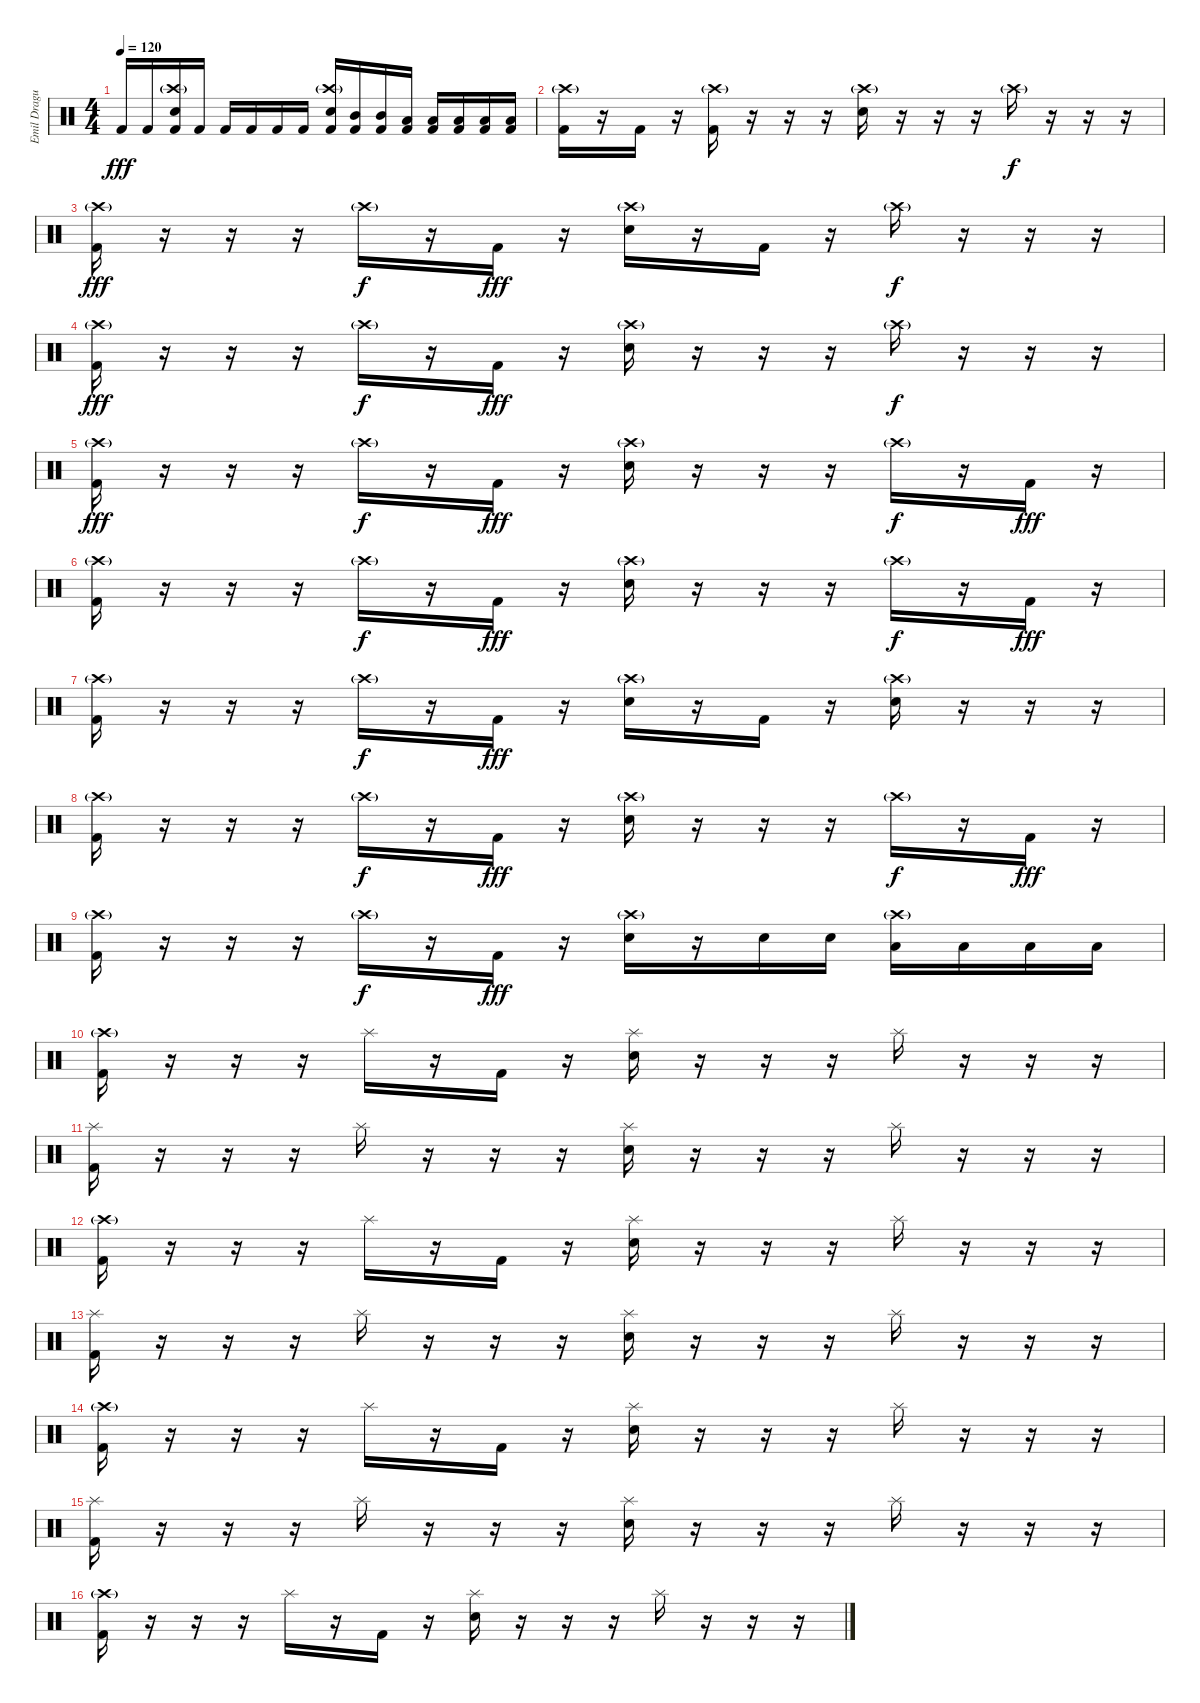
\track ("Emil Dragutinovic" "Emil Dragu") {instrument percussion}
\staff {score}
\articulation defaults
\ts (4 4)
\tempo 120
\clef neutral
\ks c "Kick (hit) 2".16{dy fff} "Kick (hit) 2".16
("Crash high (hit)"{g} "Electric Snare (hit)" "Kick (hit) 2").16 "Kick (hit) 2".16 "Kick (hit) 2".16 "Kick (hit) 2".16 "Kick (hit) 2".16 "Kick (hit) 2".16 ("Crash high (hit)"{g} "Electric Snare (hit)" "Kick (hit) 2").16 ("Mid Tom (hit)" "Kick (hit) 2").16 ("Mid Tom (hit)" "Kick (hit) 2").16 ("Low Tom (hit)" "Kick (hit) 2").16 ("Low Tom (hit)" "Kick (hit) 2").16 ("Low Floor Tom (hit)" "Kick (hit) 2").16 ("Low Floor Tom (hit)" "Kick (hit) 2").16 ("Low Floor Tom (hit)" "Kick (hit) 2").16 |
("Crash high (hit)"{g} "Kick (hit) 2").16 r.16 "Kick (hit) 2".16 r.16 ("Crash high (hit)"{g} "Kick (hit) 2").16 r.16 r.16 r.16 ("Crash high (hit)"{g} "Electric Snare (hit)").16 r.16 r.16 r.16 "Crash high (hit)"{g}.16{dy f} r.16 r.16 r.16 |
("Crash high (hit)"{g} "Kick (hit) 2").16{dy fff} r.16 r.16 r.16 "Crash high (hit)"{g}.16{dy f} r.16 "Kick (hit) 2".16{dy fff} r.16 ("Crash high (hit)"{g} "Electric Snare (hit)").16 r.16 "Kick (hit) 2".16 r.16 "Crash high (hit)"{g}.16{dy f} r.16 r.16 r.16 |
("Crash high (hit)"{g} "Kick (hit) 2").16{dy fff} r.16 r.16 r.16 "Crash high (hit)"{g}.16{dy f} r.16 "Kick (hit) 2".16{dy fff} r.16 ("Crash high (hit)"{g} "Electric Snare (hit)").16 r.16 r.16 r.16 "Crash high (hit)"{g}.16{dy f} r.16 r.16 r.16 |
("Crash high (hit)"{g} "Kick (hit) 2").16{dy fff} r.16 r.16 r.16 "Crash high (hit)"{g}.16{dy f} r.16 "Kick (hit) 2".16{dy fff} r.16 ("Crash high (hit)"{g} "Electric Snare (hit)").16 r.16 r.16 r.16 "Crash high (hit)"{g}.16{dy f} r.16 "Kick (hit) 2".16{dy fff} r.16 |
("Crash high (hit)"{g} "Kick (hit) 2").16 r.16 r.16 r.16 "Crash high (hit)"{g}.16{dy f} r.16 "Kick (hit) 2".16{dy fff} r.16 ("Crash high (hit)"{g} "Electric Snare (hit)").16 r.16 r.16 r.16 "Crash high (hit)"{g}.16{dy f} r.16 "Kick (hit) 2".16{dy fff} r.16 |
("Crash high (hit)"{g} "Kick (hit) 2").16 r.16 r.16 r.16 "Crash high (hit)"{g}.16{dy f} r.16 "Kick (hit) 2".16{dy fff} r.16 ("Crash high (hit)"{g} "Electric Snare (hit)").16 r.16 "Kick (hit) 2".16 r.16 ("Crash high (hit)"{g} "Electric Snare (hit)").16 r.16 r.16 r.16 |
("Crash high (hit)"{g} "Kick (hit) 2").16 r.16 r.16 r.16 "Crash high (hit)"{g}.16{dy f} r.16 "Kick (hit) 2".16{dy fff} r.16 ("Crash high (hit)"{g} "Electric Snare (hit)").16 r.16 r.16 r.16 "Crash high (hit)"{g}.16{dy f} r.16 "Kick (hit) 2".16{dy fff} r.16 |
("Crash high (hit)"{g} "Kick (hit) 2").16 r.16 r.16 r.16 "Crash high (hit)"{g}.16{dy f} r.16 "Kick (hit) 2".16{dy fff} r.16 ("Crash high (hit)"{g} "Electric Snare (hit)").16 r.16 "Electric Snare (hit)".16 "Electric Snare (hit)".16 ("Crash high (hit)"{g} "Low Tom (hit)").16 "Low Tom (hit)".16 "Low Floor Tom (hit)".16 "Low Floor Tom (hit)".16 |
("Crash high (hit)"{g} "Kick (hit) 2").16 r.16 r.16 r.16 "Splash (hit)".16 r.16 "Kick (hit) 2".16 r.16 ("Splash (hit)" "Electric Snare (hit)").16 r.16 r.16 r.16 "Splash (hit)".16 r.16 r.16 r.16 |
("Splash (hit)" "Kick (hit) 2").16 r.16 r.16 r.16 "Splash (hit)".16 r.16 r.16 r.16 ("Splash (hit)" "Electric Snare (hit)").16 r.16 r.16 r.16 "Splash (hit)".16 r.16 r.16 r.16 |
("Crash high (hit)"{g} "Kick (hit) 2").16 r.16 r.16 r.16 "Splash (hit)".16 r.16 "Kick (hit) 2".16 r.16 ("Splash (hit)" "Electric Snare (hit)").16 r.16 r.16 r.16 "Splash (hit)".16 r.16 r.16 r.16 |
("Splash (hit)" "Kick (hit) 2").16 r.16 r.16 r.16 "Splash (hit)".16 r.16 r.16 r.16 ("Splash (hit)" "Electric Snare (hit)").16 r.16 r.16 r.16 "Splash (hit)".16 r.16 r.16 r.16 |
("Crash high (hit)"{g} "Kick (hit) 2").16 r.16 r.16 r.16 "Splash (hit)".16 r.16 "Kick (hit) 2".16 r.16 ("Splash (hit)" "Electric Snare (hit)").16 r.16 r.16 r.16 "Splash (hit)".16 r.16 r.16 r.16 |
("Splash (hit)" "Kick (hit) 2").16 r.16 r.16 r.16 "Splash (hit)".16 r.16 r.16 r.16 ("Splash (hit)" "Electric Snare (hit)").16 r.16 r.16 r.16 "Splash (hit)".16 r.16 r.16 r.16 |
("Crash high (hit)"{g} "Kick (hit) 2").16 r.16 r.16 r.16 "Splash (hit)".16 r.16 "Kick (hit) 2".16 r.16 ("Splash (hit)" "Electric Snare (hit)").16 r.16 r.16 r.16 "Splash (hit)".16 r.16 r.16 r.16
